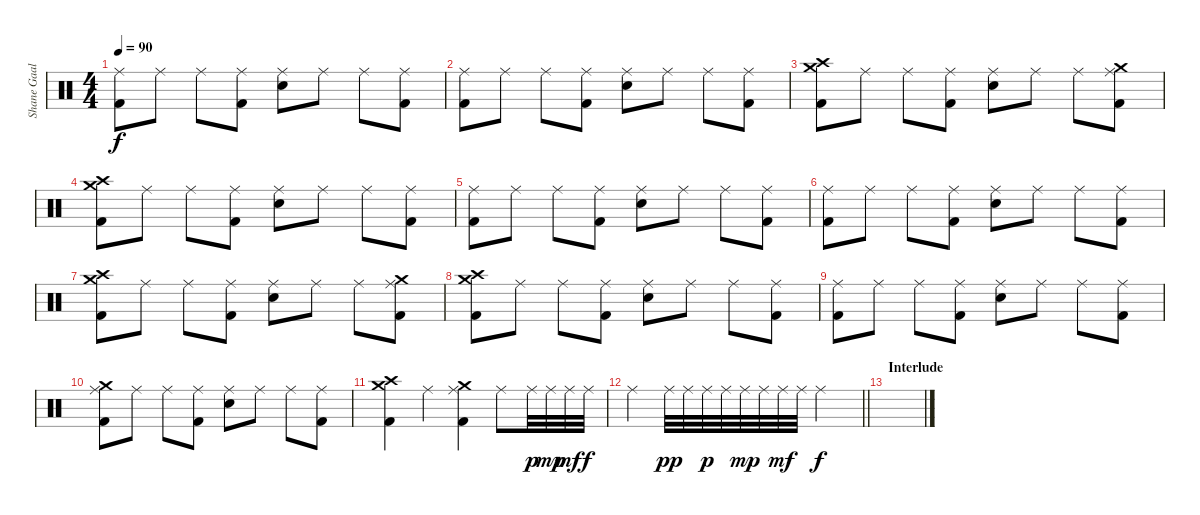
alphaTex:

\track ("Shane Gaalaas" "Shane Gaal") {instrument percussion}
\staff {score}
\articulation defaults
\ts (4 4)
\tempo 90
\clef neutral
\ks c
("Ride (middle)" "Kick (hit) 2").8{dy f} "Ride (middle)".8 "Ride (middle)".8 ("Ride (middle)" "Kick (hit) 2").8 ("Ride (middle)" "Electric Snare (hit)").8 "Ride (middle)".8 "Ride (middle)".8 ("Ride (middle)" "Kick (hit) 2").8 |
("Ride (middle)" "Kick (hit) 2").8 "Ride (middle)".8 "Ride (middle)".8 ("Ride (middle)" "Kick (hit) 2").8 ("Ride (middle)" "Electric Snare (hit)").8 "Ride (middle)".8 "Ride (middle)".8 ("Ride (middle)" "Kick (hit) 2").8 |
("Crash high (hit)" "Crash medium (hit)" "Kick (hit) 2").8 "Ride (middle)".8 "Ride (middle)".8 ("Ride (middle)" "Kick (hit) 2").8 ("Ride (middle)" "Electric Snare (hit)").8 "Ride (middle)".8 "Ride (middle)".8 ("Crash medium (hit)" "Ride (middle)" "Kick (hit) 2").8 |
("Crash high (hit)" "Crash medium (hit)" "Kick (hit) 2").8 "Ride (middle)".8 "Ride (middle)".8 ("Ride (middle)" "Kick (hit) 2").8 ("Ride (middle)" "Electric Snare (hit)").8 "Ride (middle)".8 "Ride (middle)".8 ("Ride (middle)" "Kick (hit) 2").8 |
("Ride (middle)" "Kick (hit) 2").8 "Ride (middle)".8 "Ride (middle)".8 ("Ride (middle)" "Kick (hit) 2").8 ("Ride (middle)" "Electric Snare (hit)").8 "Ride (middle)".8 "Ride (middle)".8 ("Ride (middle)" "Kick (hit) 2").8 |
("Ride (middle)" "Kick (hit) 2").8 "Ride (middle)".8 "Ride (middle)".8 ("Ride (middle)" "Kick (hit) 2").8 ("Ride (middle)" "Electric Snare (hit)").8 "Ride (middle)".8 "Ride (middle)".8 ("Ride (middle)" "Kick (hit) 2").8 |
("Crash high (hit)" "Crash medium (hit)" "Kick (hit) 2").8 "Ride (middle)".8 "Ride (middle)".8 ("Ride (middle)" "Kick (hit) 2").8 ("Ride (middle)" "Electric Snare (hit)").8 "Ride (middle)".8 "Ride (middle)".8 ("Crash medium (hit)" "Ride (middle)" "Kick (hit) 2").8 |
("Crash high (hit)" "Crash medium (hit)" "Kick (hit) 2").8 "Ride (middle)".8 "Ride (middle)".8 ("Ride (middle)" "Kick (hit) 2").8 ("Ride (middle)" "Electric Snare (hit)").8 "Ride (middle)".8 "Ride (middle)".8 ("Ride (middle)" "Kick (hit) 2").8 |
("Ride (middle)" "Kick (hit) 2").8 "Ride (middle)".8 "Ride (middle)".8 ("Ride (middle)" "Kick (hit) 2").8 ("Ride (middle)" "Electric Snare (hit)").8 "Ride (middle)".8 "Ride (middle)".8 ("Ride (middle)" "Kick (hit) 2").8 |
("Crash medium (hit)" "Ride (middle)" "Kick (hit) 2").8 "Ride (middle)".8 "Ride (middle)".8 ("Ride (middle)" "Kick (hit) 2").8 ("Ride (middle)" "Electric Snare (hit)").8 "Ride (middle)".8 "Ride (middle)".8 ("Ride (middle)" "Kick (hit) 2").8 |
("Crash high (hit)" "Crash medium (hit)" "Kick (hit) 2").4 "Ride (middle)".4 ("Crash medium (hit)" "Ride (middle)" "Kick (hit) 2").4 "Ride (middle)".8 "Ride (middle)".32{dy p} "Ride (middle)".32{dy mp} "Ride (middle)".32{dy mf} "Ride (middle)".32{dy f} |
\barLineRight lightlight "Ride (middle)".4 "Ride (middle)".32{dy pp} "Ride (middle)".32 "Ride (middle)".32{dy p} "Ride (middle)".32 "Ride (middle)".32{dy mp} "Ride (middle)".32 "Ride (middle)".32{dy mf} "Ride (middle)".32 "Ride (middle)".2{dy f}
|
\section ("" "Interlude")
